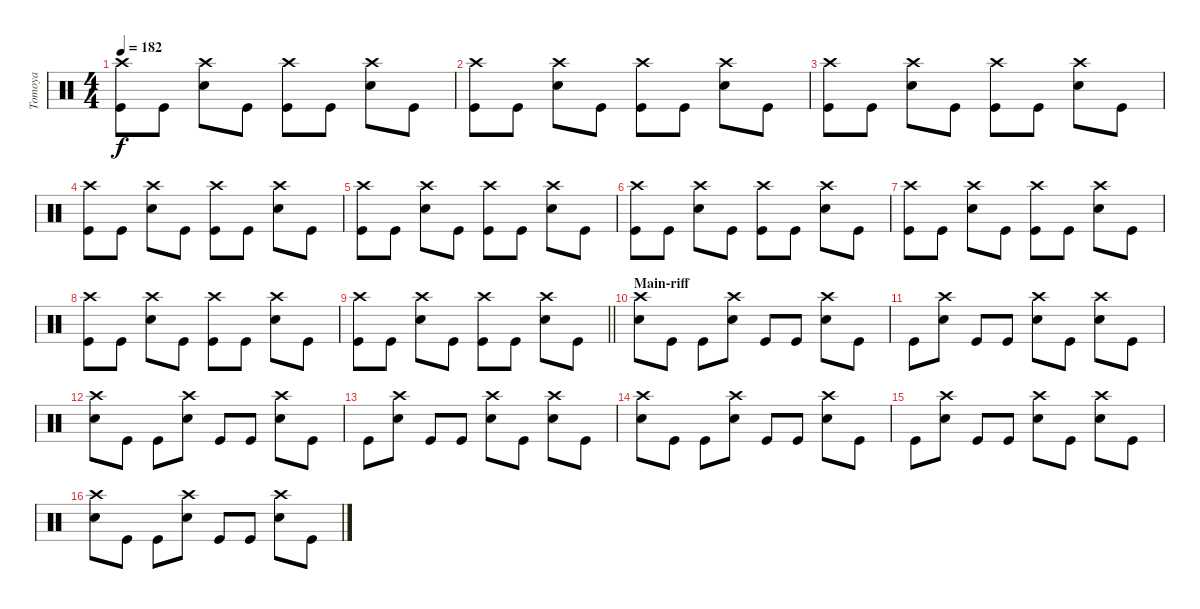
\track ("Tomoya" "Tomoya") {instrument percussion}
\staff {score}
\articulation defaults
\ts (4 4)
\tempo 182
\clef neutral
\ks c
("Crash high (hit)" "Kick (hit)").8{dy f} "Kick (hit)".8 ("Crash high (hit)" "Snare (hit) 2").8 "Kick (hit)".8 ("Crash high (hit)" "Kick (hit)").8 "Kick (hit)".8 ("Crash high (hit)" "Snare (hit) 2").8 "Kick (hit)".8 |
("Crash high (hit)" "Kick (hit)").8 "Kick (hit)".8 ("Crash high (hit)" "Snare (hit) 2").8 "Kick (hit)".8 ("Crash high (hit)" "Kick (hit)").8 "Kick (hit)".8 ("Crash high (hit)" "Snare (hit) 2").8 "Kick (hit)".8 |
("Crash high (hit)" "Kick (hit)").8 "Kick (hit)".8 ("Crash high (hit)" "Snare (hit) 2").8 "Kick (hit)".8 ("Crash high (hit)" "Kick (hit)").8 "Kick (hit)".8 ("Crash high (hit)" "Snare (hit) 2").8 "Kick (hit)".8 |
("Crash high (hit)" "Kick (hit)").8 "Kick (hit)".8 ("Crash high (hit)" "Snare (hit) 2").8 "Kick (hit)".8 ("Crash high (hit)" "Kick (hit)").8 "Kick (hit)".8 ("Crash high (hit)" "Snare (hit) 2").8 "Kick (hit)".8 |
("Crash high (hit)" "Kick (hit)").8 "Kick (hit)".8 ("Crash high (hit)" "Snare (hit) 2").8 "Kick (hit)".8 ("Crash high (hit)" "Kick (hit)").8 "Kick (hit)".8 ("Crash high (hit)" "Snare (hit) 2").8 "Kick (hit)".8 |
("Crash high (hit)" "Kick (hit)").8 "Kick (hit)".8 ("Crash high (hit)" "Snare (hit) 2").8 "Kick (hit)".8 ("Crash high (hit)" "Kick (hit)").8 "Kick (hit)".8 ("Crash high (hit)" "Snare (hit) 2").8 "Kick (hit)".8 |
("Crash high (hit)" "Kick (hit)").8 "Kick (hit)".8 ("Crash high (hit)" "Snare (hit) 2").8 "Kick (hit)".8 ("Crash high (hit)" "Kick (hit)").8 "Kick (hit)".8 ("Crash high (hit)" "Snare (hit) 2").8 "Kick (hit)".8 |
("Crash high (hit)" "Kick (hit)").8 "Kick (hit)".8 ("Crash high (hit)" "Snare (hit) 2").8 "Kick (hit)".8 ("Crash high (hit)" "Kick (hit)").8 "Kick (hit)".8 ("Crash high (hit)" "Snare (hit) 2").8 "Kick (hit)".8 |
\barLineRight lightlight
("Crash high (hit)" "Kick (hit)").8 "Kick (hit)".8 ("Crash high (hit)" "Snare (hit) 2").8 "Kick (hit)".8 ("Crash high (hit)" "Kick (hit)").8 "Kick (hit)".8 ("Crash high (hit)" "Snare (hit) 2").8 "Kick (hit)".8 |
\section ("" "Main-riff")
("Crash high (hit)" "Snare (hit) 2").8 "Kick (hit)".8 "Kick (hit)".8 ("Crash high (hit)" "Snare (hit) 2").8 "Kick (hit)".8 "Kick (hit)".8 ("Crash high (hit)" "Snare (hit) 2").8 "Kick (hit)".8 |
"Kick (hit)".8 ("Crash high (hit)" "Snare (hit) 2").8 "Kick (hit)".8 "Kick (hit)".8 ("Crash high (hit)" "Snare (hit) 2").8 "Kick (hit)".8 ("Crash high (hit)" "Snare (hit) 2").8 "Kick (hit)".8 |
("Crash high (hit)" "Snare (hit) 2").8 "Kick (hit)".8 "Kick (hit)".8 ("Crash high (hit)" "Snare (hit) 2").8 "Kick (hit)".8 "Kick (hit)".8 ("Crash high (hit)" "Snare (hit) 2").8 "Kick (hit)".8 |
"Kick (hit)".8 ("Crash high (hit)" "Snare (hit) 2").8 "Kick (hit)".8 "Kick (hit)".8 ("Crash high (hit)" "Snare (hit) 2").8 "Kick (hit)".8 ("Crash high (hit)" "Snare (hit) 2").8 "Kick (hit)".8 |
("Crash high (hit)" "Snare (hit) 2").8 "Kick (hit)".8 "Kick (hit)".8 ("Crash high (hit)" "Snare (hit) 2").8 "Kick (hit)".8 "Kick (hit)".8 ("Crash high (hit)" "Snare (hit) 2").8 "Kick (hit)".8 |
"Kick (hit)".8 ("Crash high (hit)" "Snare (hit) 2").8 "Kick (hit)".8 "Kick (hit)".8 ("Crash high (hit)" "Snare (hit) 2").8 "Kick (hit)".8 ("Crash high (hit)" "Snare (hit) 2").8 "Kick (hit)".8 |
("Crash high (hit)" "Snare (hit) 2").8 "Kick (hit)".8 "Kick (hit)".8 ("Crash high (hit)" "Snare (hit) 2").8 "Kick (hit)".8 "Kick (hit)".8 ("Crash high (hit)" "Snare (hit) 2").8 "Kick (hit)".8
